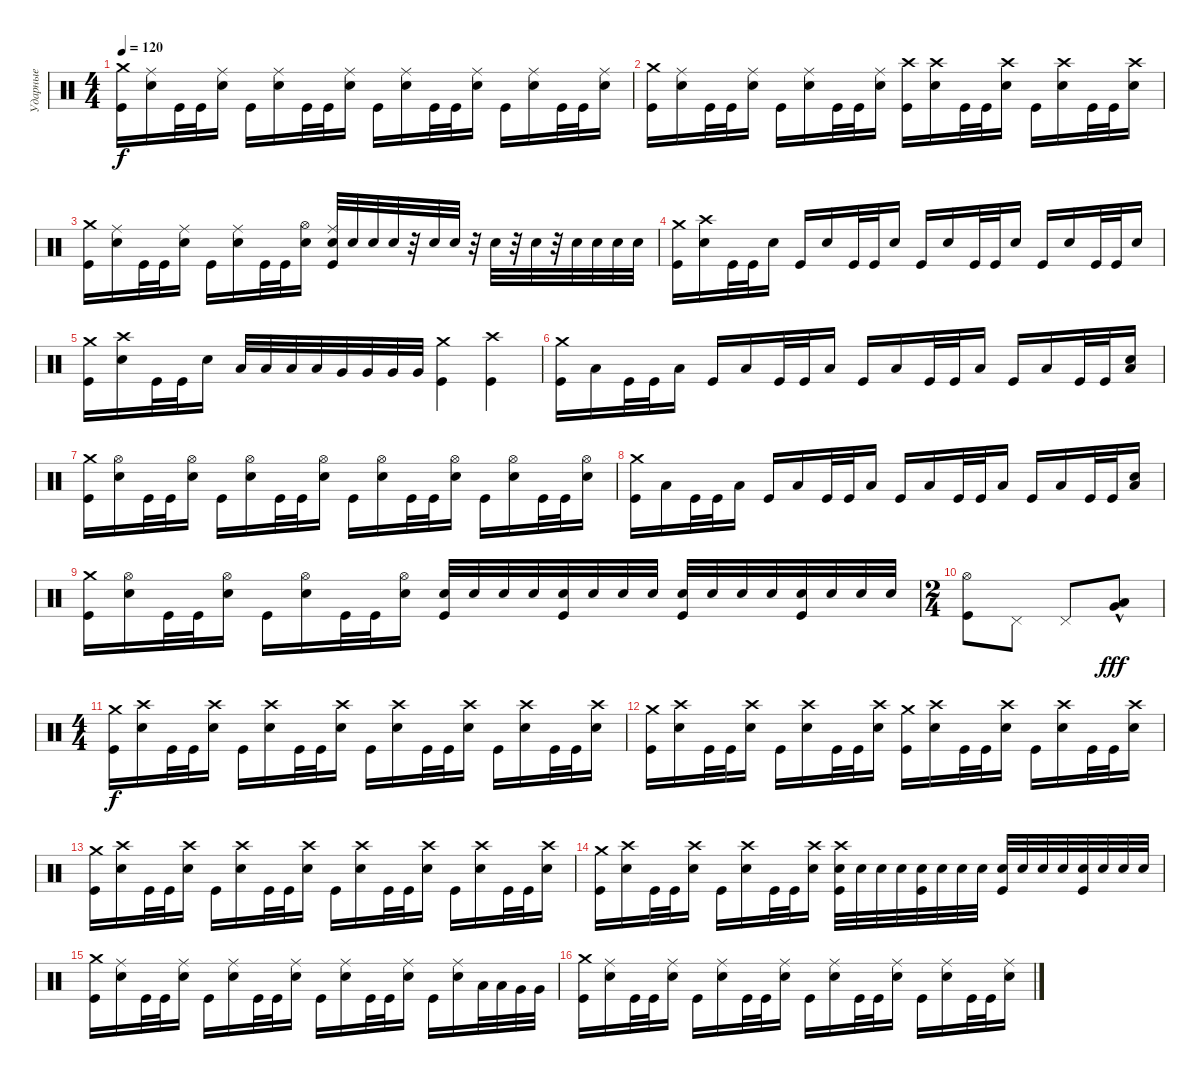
\track ("Ударные" "Ударные") {solo instrument percussion}
\staff {score}
\articulation defaults
\ts (4 4)
\tempo 120
\clef neutral
\ks c
("Crash medium (hit)" "Kick (hit)").16{dy f} ("Ride (middle)" "Snare (hit) 2").16 "Kick (hit)".32 "Kick (hit)".32 ("Ride (middle)" "Snare (hit) 2").16 "Kick (hit)".16 ("Ride (middle)" "Snare (hit) 2").16 "Kick (hit)".32 "Kick (hit)".32 ("Ride (middle)" "Snare (hit) 2").16 "Kick (hit)".16 ("Ride (middle)" "Snare (hit) 2").16 "Kick (hit)".32 "Kick (hit)".32 ("Ride (middle)" "Snare (hit) 2").16 "Kick (hit)".16 ("Ride (middle)" "Snare (hit) 2").16 "Kick (hit)".32 "Kick (hit)".32 ("Ride (middle)" "Snare (hit) 2").16 |
("Crash medium (hit)" "Kick (hit)").16 ("Ride (middle)" "Snare (hit) 2").16 "Kick (hit)".32 "Kick (hit)".32 ("Ride (middle)" "Snare (hit) 2").16 "Kick (hit)".16 ("Ride (middle)" "Snare (hit) 2").16 "Kick (hit)".32 "Kick (hit)".32 ("Ride (middle)" "Snare (hit) 2").16 ("Crash high (hit)" "Kick (hit)").16 ("Crash high (hit)" "Snare (hit) 2").16 "Kick (hit)".32 "Kick (hit)".32 ("Crash high (hit)" "Snare (hit) 2").16 "Kick (hit)".16 ("Crash high (hit)" "Snare (hit) 2").16 "Kick (hit)".32 "Kick (hit)".32 ("Crash high (hit)" "Snare (hit) 2").16 |
("Crash medium (hit)" "Kick (hit)").16 ("Ride (middle)" "Snare (hit) 2").16 "Kick (hit)".32 "Kick (hit)".32 ("Ride (middle)" "Snare (hit) 2").16 "Kick (hit)".16 ("Ride (middle)" "Snare (hit) 2").16 "Kick (hit)".32 "Kick (hit)".32 ("Hi-Hat (open)" "Snare (hit) 2").16 ("Ride (middle)" "Kick (hit)" "Snare (hit) 2").32 "Snare (hit) 2".32 "Snare (hit) 2".32 "Snare (hit) 2".32 r.32 "Snare (hit) 2".32 "Snare (hit) 2".32 r.32 "Snare (hit) 2".32 r.32 "Snare (hit) 2".32 r.32 "Snare (hit) 2".32 "Snare (hit) 2".32 "Snare (hit) 2".32 "Snare (hit) 2".32 |
("Crash medium (hit)" "Kick (hit)").16 ("Crash high (hit)" "Snare (hit) 2").16 "Kick (hit)".32 "Kick (hit)".32 "Snare (hit) 2".16 "Kick (hit)".16 "Snare (hit) 2".16 "Kick (hit)".32 "Kick (hit)".32 "Snare (hit) 2".16 "Kick (hit)".16 "Snare (hit) 2".16 "Kick (hit)".32 "Kick (hit)".32 "Snare (hit) 2".16 "Kick (hit)".16 "Snare (hit) 2".16 "Kick (hit)".32 "Kick (hit)".32 "Snare (hit) 2".16 |
("Crash medium (hit)" "Kick (hit)").16 ("Crash high (hit)" "Snare (hit) 2").16 "Kick (hit)".32 "Kick (hit)".32 "Snare (hit) 2".16 "Low Tom (hit)".32 "Low Tom (hit)".32 "Low Tom (hit)".32 "Low Tom (hit)".32 "Very Low Tom (hit)".32 "Very Low Tom (hit)".32 "Very Low Tom (hit)".32 "Very Low Tom (hit)".32 ("Crash medium (hit)" "Kick (hit)").4 ("Crash high (hit)" "Kick (hit)").4 |
("Crash medium (hit)" "Kick (hit)").16 "Low Floor Tom (hit)".16 "Kick (hit)".32 "Kick (hit)".32 "Low Floor Tom (hit)".16 "Kick (hit)".16 "Low Floor Tom (hit)".16 "Kick (hit)".32 "Kick (hit)".32 "Low Floor Tom (hit)".16 "Kick (hit)".16 "Low Floor Tom (hit)".16 "Kick (hit)".32 "Kick (hit)".32 "Low Floor Tom (hit)".16 "Kick (hit)".16 "Low Floor Tom (hit)".16 "Kick (hit)".32 "Kick (hit)".32 ("Low Floor Tom (hit)" "Snare (hit) 2").16 |
("Crash medium (hit)" "Kick (hit)").16 ("Hi-Hat (open)" "Snare (hit) 2").16 "Kick (hit)".32 "Kick (hit)".32 ("Hi-Hat (open)" "Snare (hit) 2").16 "Kick (hit)".16 ("Hi-Hat (open)" "Snare (hit) 2").16 "Kick (hit)".32 "Kick (hit)".32 ("Hi-Hat (open)" "Snare (hit) 2").16 "Kick (hit)".16 ("Hi-Hat (open)" "Snare (hit) 2").16 "Kick (hit)".32 "Kick (hit)".32 ("Hi-Hat (open)" "Snare (hit) 2").16 "Kick (hit)".16 ("Hi-Hat (open)" "Snare (hit) 2").16 "Kick (hit)".32 "Kick (hit)".32 ("Hi-Hat (open)" "Snare (hit) 2").16 |
("Crash medium (hit)" "Kick (hit)").16 "Low Floor Tom (hit)".16 "Kick (hit)".32 "Kick (hit)".32 "Low Floor Tom (hit)".16 "Kick (hit)".16 "Low Floor Tom (hit)".16 "Kick (hit)".32 "Kick (hit)".32 "Low Floor Tom (hit)".16 "Kick (hit)".16 "Low Floor Tom (hit)".16 "Kick (hit)".32 "Kick (hit)".32 "Low Floor Tom (hit)".16 "Kick (hit)".16 "Low Floor Tom (hit)".16 "Kick (hit)".32 "Kick (hit)".32 ("Low Floor Tom (hit)" "Snare (hit) 2").16 |
("Crash medium (hit)" "Kick (hit)").16 ("Hi-Hat (open)" "Snare (hit) 2").16 "Kick (hit)".32 "Kick (hit)".32 ("Hi-Hat (open)" "Snare (hit) 2").16 "Kick (hit)".16 ("Hi-Hat (open)" "Snare (hit) 2").16 "Kick (hit)".32 "Kick (hit)".32 ("Hi-Hat (open)" "Snare (hit) 2").16 ("Kick (hit)" "Snare (hit) 2").32 "Snare (hit) 2".32 "Snare (hit) 2".32 "Snare (hit) 2".32 ("Kick (hit)" "Snare (hit) 2").32 "Snare (hit) 2".32 "Snare (hit) 2".32 "Snare (hit) 2".32 ("Kick (hit)" "Snare (hit) 2").32 "Snare (hit) 2".32 "Snare (hit) 2".32 "Snare (hit) 2".32 ("Kick (hit)" "Snare (hit) 2").32 "Snare (hit) 2".32 "Snare (hit) 2".32 "Snare (hit) 2".32 |
\ts (2 4)
("Hi-Hat (open)" "Kick (hit)").8 "Pedal Hi-Hat (hit)".8 "Pedal Hi-Hat (hit)".8 ("Low Floor Tom (hit)"{hac} "Very Low Tom (hit)"{hac}).8{dy fff} |
\ts (4 4)
("Crash medium (hit)" "Kick (hit)").16{dy f} ("Crash high (hit)" "Snare (hit) 2").16 "Kick (hit)".32 "Kick (hit)".32 ("Crash high (hit)" "Snare (hit) 2").16 "Kick (hit)".16 ("Crash high (hit)" "Snare (hit) 2").16 "Kick (hit)".32 "Kick (hit)".32 ("Crash high (hit)" "Snare (hit) 2").16 "Kick (hit)".16 ("Crash high (hit)" "Snare (hit) 2").16 "Kick (hit)".32 "Kick (hit)".32 ("Crash high (hit)" "Snare (hit) 2").16 "Kick (hit)".16 ("Crash high (hit)" "Snare (hit) 2").16 "Kick (hit)".32 "Kick (hit)".32 ("Crash high (hit)" "Snare (hit) 2").16 |
("Crash medium (hit)" "Kick (hit)").16 ("Crash high (hit)" "Snare (hit) 2").16 "Kick (hit)".32 "Kick (hit)".32 ("Crash high (hit)" "Snare (hit) 2").16 "Kick (hit)".16 ("Crash high (hit)" "Snare (hit) 2").16 "Kick (hit)".32 "Kick (hit)".32 ("Crash high (hit)" "Snare (hit) 2").16 ("Crash medium (hit)" "Kick (hit)").16 ("Crash high (hit)" "Snare (hit) 2").16 "Kick (hit)".32 "Kick (hit)".32 ("Crash high (hit)" "Snare (hit) 2").16 "Kick (hit)".16 ("Crash high (hit)" "Snare (hit) 2").16 "Kick (hit)".32 "Kick (hit)".32 ("Crash high (hit)" "Snare (hit) 2").16 |
("Crash medium (hit)" "Kick (hit)").16 ("Crash high (hit)" "Snare (hit) 2").16 "Kick (hit)".32 "Kick (hit)".32 ("Crash high (hit)" "Snare (hit) 2").16 "Kick (hit)".16 ("Crash high (hit)" "Snare (hit) 2").16 "Kick (hit)".32 "Kick (hit)".32 ("Crash high (hit)" "Snare (hit) 2").16 "Kick (hit)".16 ("Crash high (hit)" "Snare (hit) 2").16 "Kick (hit)".32 "Kick (hit)".32 ("Crash high (hit)" "Snare (hit) 2").16 "Kick (hit)".16 ("Crash high (hit)" "Snare (hit) 2").16 "Kick (hit)".32 "Kick (hit)".32 ("Crash high (hit)" "Snare (hit) 2").16 |
("Crash medium (hit)" "Kick (hit)").16 ("Crash high (hit)" "Snare (hit) 2").16 "Kick (hit)".32 "Kick (hit)".32 ("Crash high (hit)" "Snare (hit) 2").16 "Kick (hit)".16 ("Crash high (hit)" "Snare (hit) 2").16 "Kick (hit)".32 "Kick (hit)".32 ("Crash high (hit)" "Snare (hit) 2").16 ("Crash high (hit)" "Kick (hit)" "Snare (hit) 2").32 "Snare (hit) 2".32 "Snare (hit) 2".32 "Snare (hit) 2".32 ("Kick (hit)" "Snare (hit) 2").32 "Snare (hit) 2".32 "Snare (hit) 2".32 "Snare (hit) 2".32 ("Kick (hit)" "Snare (hit) 2").32 "Snare (hit) 2".32 "Snare (hit) 2".32 "Snare (hit) 2".32 ("Kick (hit)" "Snare (hit) 2").32 "Snare (hit) 2".32 "Snare (hit) 2".32 "Snare (hit) 2".32 |
("Crash medium (hit)" "Kick (hit)").16 ("Ride (middle)" "Snare (hit) 2").16 "Kick (hit)".32 "Kick (hit)".32 ("Ride (middle)" "Snare (hit) 2").16 "Kick (hit)".16 ("Ride (middle)" "Snare (hit) 2").16 "Kick (hit)".32 "Kick (hit)".32 ("Ride (middle)" "Snare (hit) 2").16 "Kick (hit)".16 ("Ride (middle)" "Snare (hit) 2").16 "Kick (hit)".32 "Kick (hit)".32 ("Ride (middle)" "Snare (hit) 2").16 "Kick (hit)".16 ("Ride (middle)" "Snare (hit) 2").16 "Low Tom (hit)".32 "Low Tom (hit)".32 "Very Low Tom (hit)".32 "Very Low Tom (hit)".32 |
("Crash medium (hit)" "Kick (hit)").16 ("Ride (middle)" "Snare (hit) 2").16 "Kick (hit)".32 "Kick (hit)".32 ("Ride (middle)" "Snare (hit) 2").16 "Kick (hit)".16 ("Ride (middle)" "Snare (hit) 2").16 "Kick (hit)".32 "Kick (hit)".32 ("Ride (middle)" "Snare (hit) 2").16 "Kick (hit)".16 ("Ride (middle)" "Snare (hit) 2").16 "Kick (hit)".32 "Kick (hit)".32 ("Ride (middle)" "Snare (hit) 2").16 "Kick (hit)".16 ("Ride (middle)" "Snare (hit) 2").16 "Kick (hit)".32 "Kick (hit)".32 ("Ride (middle)" "Snare (hit) 2").16
